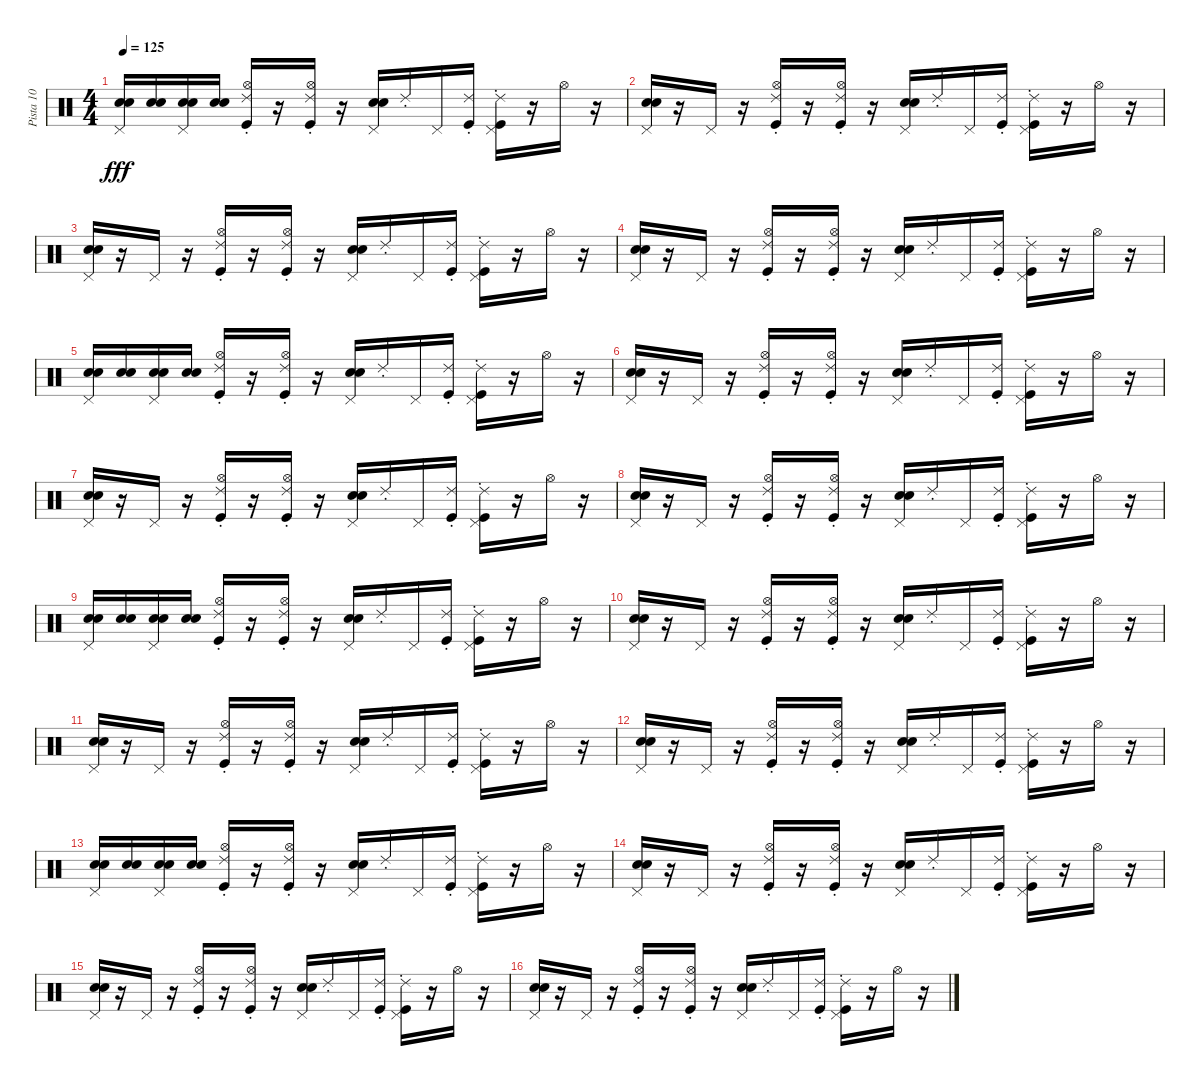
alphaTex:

\track ("Pista 10" "Pista 10") {instrument percussion}
\staff {score}
\articulation defaults
\ts (4 4)
\tempo 125
\clef neutral
\ks c
("Pedal Hi-Hat (hit)" "Electric Snare (hit)" "Hand Clap (hit)").16{dy fff} ("Hand Clap (hit)" "Electric Snare (hit)").16 ("Pedal Hi-Hat (hit)" "Hand Clap (hit)" "Electric Snare (hit)").16 ("Hand Clap (hit)" "Electric Snare (hit)").16 ("Ride (choke) 2" "Hi-Hat (open)" "Kick (hit)").16 r.16 ("Ride (choke) 2" "Hi-Hat (open)" "Kick (hit)").16 r.16 ("Pedal Hi-Hat (hit)" "Electric Snare (hit)" "Hand Clap (hit)").16 "Ride (choke) 2".16 "Pedal Hi-Hat (hit)".16 ("Kick (hit)" "Ride (choke) 2").16 ("Ride (choke) 2" "Pedal Hi-Hat (hit)" "Kick (hit)").16 r.16 "Hi-Hat (open)".16 r.16 |
("Pedal Hi-Hat (hit)" "Hand Clap (hit)" "Electric Snare (hit)").16 r.16 "Pedal Hi-Hat (hit)".16 r.16 ("Kick (hit)" "Hi-Hat (open)" "Ride (choke) 2").16 r.16 ("Hi-Hat (open)" "Ride (choke) 2" "Kick (hit)").16 r.16 ("Hand Clap (hit)" "Pedal Hi-Hat (hit)" "Electric Snare (hit)").16 "Ride (choke) 2".16 "Pedal Hi-Hat (hit)".16 ("Kick (hit)" "Ride (choke) 2").16 ("Pedal Hi-Hat (hit)" "Kick (hit)" "Ride (choke) 2").16 r.16 "Hi-Hat (open)".16 r.16 |
("Electric Snare (hit)" "Hand Clap (hit)" "Pedal Hi-Hat (hit)").16 r.16 "Pedal Hi-Hat (hit)".16 r.16 ("Ride (choke) 2" "Kick (hit)" "Hi-Hat (open)").16 r.16 ("Ride (choke) 2" "Kick (hit)" "Hi-Hat (open)").16 r.16 ("Pedal Hi-Hat (hit)" "Hand Clap (hit)" "Electric Snare (hit)").16 "Ride (choke) 2".16 "Pedal Hi-Hat (hit)".16 ("Kick (hit)" "Ride (choke) 2").16 ("Ride (choke) 2" "Pedal Hi-Hat (hit)" "Kick (hit)").16 r.16 "Hi-Hat (open)".16 r.16 |
("Electric Snare (hit)" "Hand Clap (hit)" "Pedal Hi-Hat (hit)").16 r.16 "Pedal Hi-Hat (hit)".16 r.16 ("Kick (hit)" "Hi-Hat (open)" "Ride (choke) 2").16 r.16 ("Hi-Hat (open)" "Ride (choke) 2" "Kick (hit)").16 r.16 ("Hand Clap (hit)" "Electric Snare (hit)" "Pedal Hi-Hat (hit)").16 "Ride (choke) 2".16 "Pedal Hi-Hat (hit)".16 ("Kick (hit)" "Ride (choke) 2").16 ("Ride (choke) 2" "Pedal Hi-Hat (hit)" "Kick (hit)").16 r.16 "Hi-Hat (open)".16 r.16 |
("Pedal Hi-Hat (hit)" "Hand Clap (hit)" "Electric Snare (hit)").16 ("Electric Snare (hit)" "Hand Clap (hit)").16 ("Pedal Hi-Hat (hit)" "Hand Clap (hit)" "Electric Snare (hit)").16 ("Hand Clap (hit)" "Electric Snare (hit)").16 ("Ride (choke) 2" "Hi-Hat (open)" "Kick (hit)").16 r.16 ("Ride (choke) 2" "Hi-Hat (open)" "Kick (hit)").16 r.16 ("Pedal Hi-Hat (hit)" "Electric Snare (hit)" "Hand Clap (hit)").16 "Ride (choke) 2".16 "Pedal Hi-Hat (hit)".16 ("Kick (hit)" "Ride (choke) 2").16 ("Ride (choke) 2" "Pedal Hi-Hat (hit)" "Kick (hit)").16 r.16 "Hi-Hat (open)".16 r.16 |
("Pedal Hi-Hat (hit)" "Hand Clap (hit)" "Electric Snare (hit)").16 r.16 "Pedal Hi-Hat (hit)".16 r.16 ("Kick (hit)" "Hi-Hat (open)" "Ride (choke) 2").16 r.16 ("Hi-Hat (open)" "Ride (choke) 2" "Kick (hit)").16 r.16 ("Pedal Hi-Hat (hit)" "Electric Snare (hit)" "Hand Clap (hit)").16 "Ride (choke) 2".16 "Pedal Hi-Hat (hit)".16 ("Kick (hit)" "Ride (choke) 2").16 ("Kick (hit)" "Pedal Hi-Hat (hit)" "Ride (choke) 2").16 r.16 "Hi-Hat (open)".16 r.16 |
("Pedal Hi-Hat (hit)" "Electric Snare (hit)" "Hand Clap (hit)").16 r.16 "Pedal Hi-Hat (hit)".16 r.16 ("Ride (choke) 2" "Kick (hit)" "Hi-Hat (open)").16 r.16 ("Ride (choke) 2" "Kick (hit)" "Hi-Hat (open)").16 r.16 ("Hand Clap (hit)" "Pedal Hi-Hat (hit)" "Electric Snare (hit)").16 "Ride (choke) 2".16 "Pedal Hi-Hat (hit)".16 ("Kick (hit)" "Ride (choke) 2").16 ("Pedal Hi-Hat (hit)" "Ride (choke) 2" "Kick (hit)").16 r.16 "Hi-Hat (open)".16 r.16 |
("Hand Clap (hit)" "Electric Snare (hit)" "Pedal Hi-Hat (hit)").16 r.16 "Pedal Hi-Hat (hit)".16 r.16 ("Hi-Hat (open)" "Kick (hit)" "Ride (choke) 2").16 r.16 ("Hi-Hat (open)" "Kick (hit)" "Ride (choke) 2").16 r.16 ("Electric Snare (hit)" "Pedal Hi-Hat (hit)" "Hand Clap (hit)").16 "Ride (choke) 2".16 "Pedal Hi-Hat (hit)".16 ("Ride (choke) 2" "Kick (hit)").16 ("Ride (choke) 2" "Pedal Hi-Hat (hit)" "Kick (hit)").16 r.16 "Hi-Hat (open)".16 r.16 |
("Pedal Hi-Hat (hit)" "Hand Clap (hit)" "Electric Snare (hit)").16 ("Electric Snare (hit)" "Hand Clap (hit)").16 ("Pedal Hi-Hat (hit)" "Hand Clap (hit)" "Electric Snare (hit)").16 ("Hand Clap (hit)" "Electric Snare (hit)").16 ("Ride (choke) 2" "Hi-Hat (open)" "Kick (hit)").16 r.16 ("Ride (choke) 2" "Hi-Hat (open)" "Kick (hit)").16 r.16 ("Pedal Hi-Hat (hit)" "Electric Snare (hit)" "Hand Clap (hit)").16 "Ride (choke) 2".16 "Pedal Hi-Hat (hit)".16 ("Kick (hit)" "Ride (choke) 2").16 ("Ride (choke) 2" "Pedal Hi-Hat (hit)" "Kick (hit)").16 r.16 "Hi-Hat (open)".16 r.16 |
("Pedal Hi-Hat (hit)" "Hand Clap (hit)" "Electric Snare (hit)").16 r.16 "Pedal Hi-Hat (hit)".16 r.16 ("Kick (hit)" "Hi-Hat (open)" "Ride (choke) 2").16 r.16 ("Kick (hit)" "Hi-Hat (open)" "Ride (choke) 2").16 r.16 ("Electric Snare (hit)" "Pedal Hi-Hat (hit)" "Hand Clap (hit)").16 "Ride (choke) 2".16 "Pedal Hi-Hat (hit)".16 ("Ride (choke) 2" "Kick (hit)").16 ("Kick (hit)" "Pedal Hi-Hat (hit)" "Ride (choke) 2").16 r.16 "Hi-Hat (open)".16 r.16 |
("Electric Snare (hit)" "Hand Clap (hit)" "Pedal Hi-Hat (hit)").16 r.16 "Pedal Hi-Hat (hit)".16 r.16 ("Ride (choke) 2" "Kick (hit)" "Hi-Hat (open)").16 r.16 ("Kick (hit)" "Hi-Hat (open)" "Ride (choke) 2").16 r.16 ("Electric Snare (hit)" "Hand Clap (hit)" "Pedal Hi-Hat (hit)").16 "Ride (choke) 2".16 "Pedal Hi-Hat (hit)".16 ("Ride (choke) 2" "Kick (hit)").16 ("Ride (choke) 2" "Kick (hit)" "Pedal Hi-Hat (hit)").16 r.16 "Hi-Hat (open)".16 r.16 |
("Pedal Hi-Hat (hit)" "Electric Snare (hit)" "Hand Clap (hit)").16 r.16 "Pedal Hi-Hat (hit)".16 r.16 ("Kick (hit)" "Hi-Hat (open)" "Ride (choke) 2").16 r.16 ("Kick (hit)" "Ride (choke) 2" "Hi-Hat (open)").16 r.16 ("Hand Clap (hit)" "Electric Snare (hit)" "Pedal Hi-Hat (hit)").16 "Ride (choke) 2".16 "Pedal Hi-Hat (hit)".16 ("Kick (hit)" "Ride (choke) 2").16 ("Kick (hit)" "Ride (choke) 2" "Pedal Hi-Hat (hit)").16 r.16 "Hi-Hat (open)".16 r.16 |
("Pedal Hi-Hat (hit)" "Hand Clap (hit)" "Electric Snare (hit)").16 ("Electric Snare (hit)" "Hand Clap (hit)").16 ("Pedal Hi-Hat (hit)" "Hand Clap (hit)" "Electric Snare (hit)").16 ("Hand Clap (hit)" "Electric Snare (hit)").16 ("Kick (hit)" "Hi-Hat (open)" "Ride (choke) 2").16 r.16 ("Hi-Hat (open)" "Kick (hit)" "Ride (choke) 2").16 r.16 ("Hand Clap (hit)" "Pedal Hi-Hat (hit)" "Electric Snare (hit)").16 "Ride (choke) 2".16 "Pedal Hi-Hat (hit)".16 ("Ride (choke) 2" "Kick (hit)").16 ("Pedal Hi-Hat (hit)" "Ride (choke) 2" "Kick (hit)").16 r.16 "Hi-Hat (open)".16 r.16 |
("Electric Snare (hit)" "Hand Clap (hit)" "Pedal Hi-Hat (hit)").16 r.16 "Pedal Hi-Hat (hit)".16 r.16 ("Hi-Hat (open)" "Kick (hit)" "Ride (choke) 2").16 r.16 ("Hi-Hat (open)" "Ride (choke) 2" "Kick (hit)").16 r.16 ("Electric Snare (hit)" "Pedal Hi-Hat (hit)" "Hand Clap (hit)").16 "Ride (choke) 2".16 "Pedal Hi-Hat (hit)".16 ("Kick (hit)" "Ride (choke) 2").16 ("Kick (hit)" "Ride (choke) 2" "Pedal Hi-Hat (hit)").16 r.16 "Hi-Hat (open)".16 r.16 |
("Electric Snare (hit)" "Pedal Hi-Hat (hit)" "Hand Clap (hit)").16 r.16 "Pedal Hi-Hat (hit)".16 r.16 ("Hi-Hat (open)" "Kick (hit)" "Ride (choke) 2").16 r.16 ("Kick (hit)" "Hi-Hat (open)" "Ride (choke) 2").16 r.16 ("Electric Snare (hit)" "Pedal Hi-Hat (hit)" "Hand Clap (hit)").16 "Ride (choke) 2".16 "Pedal Hi-Hat (hit)".16 ("Ride (choke) 2" "Kick (hit)").16 ("Kick (hit)" "Pedal Hi-Hat (hit)" "Ride (choke) 2").16 r.16 "Hi-Hat (open)".16 r.16 |
("Hand Clap (hit)" "Electric Snare (hit)" "Pedal Hi-Hat (hit)").16 r.16 "Pedal Hi-Hat (hit)".16 r.16 ("Hi-Hat (open)" "Kick (hit)" "Ride (choke) 2").16 r.16 ("Hi-Hat (open)" "Ride (choke) 2" "Kick (hit)").16 r.16 ("Electric Snare (hit)" "Hand Clap (hit)" "Pedal Hi-Hat (hit)").16 "Ride (choke) 2".16 "Pedal Hi-Hat (hit)".16 ("Ride (choke) 2" "Kick (hit)").16 ("Pedal Hi-Hat (hit)" "Kick (hit)" "Ride (choke) 2").16 r.16 "Hi-Hat (open)".16 r.16
